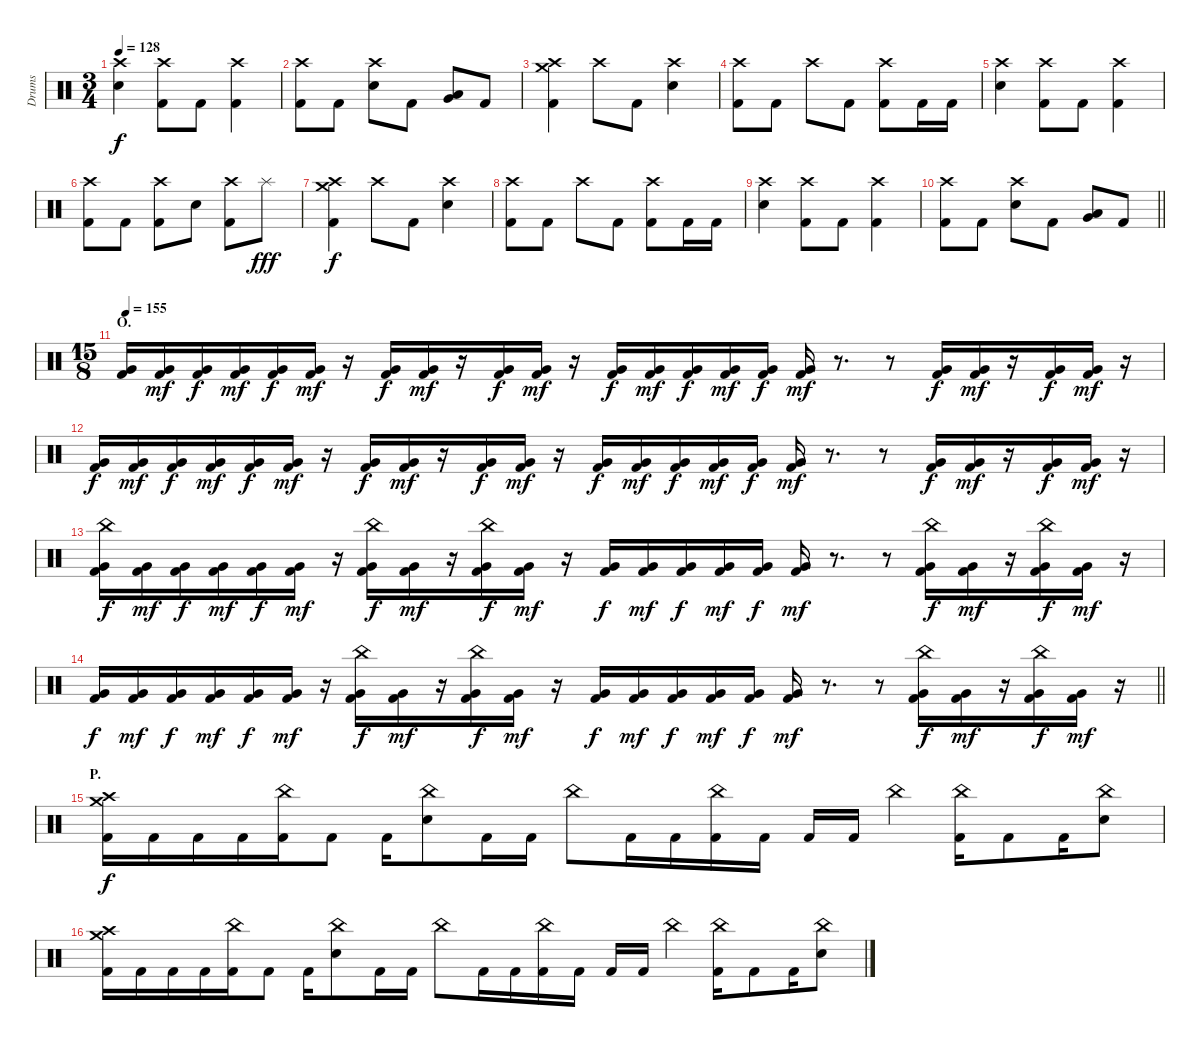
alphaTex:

\track ("Drums" "Drums") {instrument percussion}
\staff {score}
\articulation defaults
\ts (3 4)
\tempo 128
\clef neutral
\ks c
("Crash high (hit)" "Electric Snare (hit)").4{dy f} ("Crash high (hit)" "Kick (hit) 2").8 "Kick (hit) 2".8 ("Crash high (hit)" "Kick (hit) 2").4 |
("Crash high (hit)" "Kick (hit) 2").8 "Kick (hit) 2".8 ("Crash high (hit)" "Electric Snare (hit)").8 "Kick (hit) 2".8 ("Low Tom (hit)" "Very Low Tom (hit)").8{bu 120} "Kick (hit) 2".8 |
("Crash medium (hit)" "Crash high (hit)" "Kick (hit) 2").4 "Crash high (hit)".8 "Kick (hit) 2".8 ("Crash high (hit)" "Electric Snare (hit)").4 |
("Crash high (hit)" "Kick (hit) 2").8 "Kick (hit) 2".8 "Crash high (hit)".8 "Kick (hit) 2".8 ("Crash high (hit)" "Kick (hit) 2").8 "Kick (hit) 2".16 "Kick (hit) 2".16 |
("Crash high (hit)" "Electric Snare (hit)").4 ("Crash high (hit)" "Kick (hit) 2").8 "Kick (hit) 2".8 ("Crash high (hit)" "Kick (hit) 2").4 |
("Crash high (hit)" "Kick (hit) 2").8 "Kick (hit) 2".8 ("Crash high (hit)" "Kick (hit) 2").8 "Electric Snare (hit)".8 ("Crash high (hit)" "Kick (hit) 2").8 "Splash (hit)".8{dy fff} |
("Crash medium (hit)" "Crash high (hit)" "Kick (hit) 2").4{dy f} "Crash high (hit)".8 "Kick (hit) 2".8 ("Crash high (hit)" "Electric Snare (hit)").4 |
("Crash high (hit)" "Kick (hit) 2").8 "Kick (hit) 2".8 "Crash high (hit)".8 "Kick (hit) 2".8 ("Crash high (hit)" "Kick (hit) 2").8 "Kick (hit) 2".16 "Kick (hit) 2".16 |
("Crash high (hit)" "Electric Snare (hit)").4 ("Crash high (hit)" "Kick (hit) 2").8 "Kick (hit) 2".8 ("Crash high (hit)" "Kick (hit) 2").4 |
\barLineRight lightlight
("Crash high (hit)" "Kick (hit) 2").8 "Kick (hit) 2".8 ("Crash high (hit)" "Electric Snare (hit)").8 "Kick (hit) 2".8 ("Low Tom (hit)" "Very Low Tom (hit)").8{bu 120} "Kick (hit) 2".8 |
\ts (15 8)
\section ("" "O.")
\tempo 155
("Very Low Tom (hit)" "Kick (hit) 2").16 ("Very Low Tom (hit)" "Kick (hit) 2").16{dy mf} ("Very Low Tom (hit)" "Kick (hit) 2").16{dy f} ("Very Low Tom (hit)" "Kick (hit) 2").16{dy mf} ("Very Low Tom (hit)" "Kick (hit) 2").16{dy f} ("Very Low Tom (hit)" "Kick (hit) 2").16{dy mf} r.16 ("Very Low Tom (hit)" "Kick (hit) 2").16{dy f} ("Very Low Tom (hit)" "Kick (hit) 2").16{dy mf} r.16 ("Very Low Tom (hit)" "Kick (hit) 2").16{dy f} ("Very Low Tom (hit)" "Kick (hit) 2").16{dy mf} r.16 ("Very Low Tom (hit)" "Kick (hit) 2").16{dy f} ("Very Low Tom (hit)" "Kick (hit) 2").16{dy mf} ("Very Low Tom (hit)" "Kick (hit) 2").16{dy f} ("Very Low Tom (hit)" "Kick (hit) 2").16{dy mf} ("Very Low Tom (hit)" "Kick (hit) 2").16{dy f} ("Very Low Tom (hit)" "Kick (hit) 2").16{dy mf} r.8{d} r.8 ("Very Low Tom (hit)" "Kick (hit) 2").16{dy f} ("Very Low Tom (hit)" "Kick (hit) 2").16{dy mf} r.16 ("Very Low Tom (hit)" "Kick (hit) 2").16{dy f} ("Very Low Tom (hit)" "Kick (hit) 2").16{dy mf} r.16 |
("Very Low Tom (hit)" "Kick (hit) 2").16{dy f} ("Very Low Tom (hit)" "Kick (hit) 2").16{dy mf} ("Very Low Tom (hit)" "Kick (hit) 2").16{dy f} ("Very Low Tom (hit)" "Kick (hit) 2").16{dy mf} ("Very Low Tom (hit)" "Kick (hit) 2").16{dy f} ("Very Low Tom (hit)" "Kick (hit) 2").16{dy mf} r.16 ("Very Low Tom (hit)" "Kick (hit) 2").16{dy f} ("Very Low Tom (hit)" "Kick (hit) 2").16{dy mf} r.16 ("Very Low Tom (hit)" "Kick (hit) 2").16{dy f} ("Very Low Tom (hit)" "Kick (hit) 2").16{dy mf} r.16 ("Very Low Tom (hit)" "Kick (hit) 2").16{dy f} ("Very Low Tom (hit)" "Kick (hit) 2").16{dy mf} ("Very Low Tom (hit)" "Kick (hit) 2").16{dy f} ("Very Low Tom (hit)" "Kick (hit) 2").16{dy mf} ("Very Low Tom (hit)" "Kick (hit) 2").16{dy f} ("Very Low Tom (hit)" "Kick (hit) 2").16{dy mf} r.8{d} r.8 ("Very Low Tom (hit)" "Kick (hit) 2").16{dy f} ("Very Low Tom (hit)" "Kick (hit) 2").16{dy mf} r.16 ("Very Low Tom (hit)" "Kick (hit) 2").16{dy f} ("Very Low Tom (hit)" "Kick (hit) 2").16{dy mf} r.16 |
("China (hit)" "Very Low Tom (hit)" "Kick (hit) 2").16{dy f} ("Very Low Tom (hit)" "Kick (hit) 2").16{dy mf} ("Very Low Tom (hit)" "Kick (hit) 2").16{dy f} ("Very Low Tom (hit)" "Kick (hit) 2").16{dy mf} ("Very Low Tom (hit)" "Kick (hit) 2").16{dy f} ("Very Low Tom (hit)" "Kick (hit) 2").16{dy mf} r.16 ("China (hit)" "Very Low Tom (hit)" "Kick (hit) 2").16{dy f} ("Very Low Tom (hit)" "Kick (hit) 2").16{dy mf} r.16 ("China (hit)" "Very Low Tom (hit)" "Kick (hit) 2").16{dy f} ("Very Low Tom (hit)" "Kick (hit) 2").16{dy mf} r.16 ("Very Low Tom (hit)" "Kick (hit) 2").16{dy f} ("Very Low Tom (hit)" "Kick (hit) 2").16{dy mf} ("Very Low Tom (hit)" "Kick (hit) 2").16{dy f} ("Very Low Tom (hit)" "Kick (hit) 2").16{dy mf} ("Very Low Tom (hit)" "Kick (hit) 2").16{dy f} ("Very Low Tom (hit)" "Kick (hit) 2").16{dy mf} r.8{d} r.8 ("China (hit)" "Very Low Tom (hit)" "Kick (hit) 2").16{dy f} ("Very Low Tom (hit)" "Kick (hit) 2").16{dy mf} r.16 ("China (hit)" "Very Low Tom (hit)" "Kick (hit) 2").16{dy f} ("Very Low Tom (hit)" "Kick (hit) 2").16{dy mf} r.16 |
\barLineRight lightlight
("Very Low Tom (hit)" "Kick (hit) 2").16{dy f} ("Very Low Tom (hit)" "Kick (hit) 2").16{dy mf} ("Very Low Tom (hit)" "Kick (hit) 2").16{dy f} ("Very Low Tom (hit)" "Kick (hit) 2").16{dy mf} ("Very Low Tom (hit)" "Kick (hit) 2").16{dy f} ("Very Low Tom (hit)" "Kick (hit) 2").16{dy mf} r.16 ("China (hit)" "Very Low Tom (hit)" "Kick (hit) 2").16{dy f} ("Very Low Tom (hit)" "Kick (hit) 2").16{dy mf} r.16 ("China (hit)" "Very Low Tom (hit)" "Kick (hit) 2").16{dy f} ("Very Low Tom (hit)" "Kick (hit) 2").16{dy mf} r.16 ("Very Low Tom (hit)" "Kick (hit) 2").16{dy f} ("Very Low Tom (hit)" "Kick (hit) 2").16{dy mf} ("Very Low Tom (hit)" "Kick (hit) 2").16{dy f} ("Very Low Tom (hit)" "Kick (hit) 2").16{dy mf} ("Very Low Tom (hit)" "Kick (hit) 2").16{dy f} ("Very Low Tom (hit)" "Kick (hit) 2").16{dy mf} r.8{d} r.8 ("China (hit)" "Very Low Tom (hit)" "Kick (hit) 2").16{dy f} ("Very Low Tom (hit)" "Kick (hit) 2").16{dy mf} r.16 ("China (hit)" "Very Low Tom (hit)" "Kick (hit) 2").16{dy f} ("Very Low Tom (hit)" "Kick (hit) 2").16{dy mf} r.16 |
\section ("" "P.")
("Crash medium (hit)" "Crash high (hit)" "Kick (hit) 2").16{dy f} "Kick (hit) 2".16 "Kick (hit) 2".16 "Kick (hit) 2".16 ("China (hit)" "Kick (hit) 2").16 "Kick (hit) 2".8 "Kick (hit) 2".16 ("China (hit)" "Electric Snare (hit)").8 "Kick (hit) 2".16 "Kick (hit) 2".16 "China (hit)".8 "Kick (hit) 2".16 "Kick (hit) 2".16 ("China (hit)" "Kick (hit) 2").16 "Kick (hit) 2".16 "Kick (hit) 2".16 "Kick (hit) 2".16 "China (hit)".4 ("China (hit)" "Kick (hit) 2").16 "Kick (hit) 2".8 "Kick (hit) 2".16 ("China (hit)" "Electric Snare (hit)").8 |
("Crash medium (hit)" "Crash high (hit)" "Kick (hit) 2").16 "Kick (hit) 2".16 "Kick (hit) 2".16 "Kick (hit) 2".16 ("China (hit)" "Kick (hit) 2").16 "Kick (hit) 2".8 "Kick (hit) 2".16 ("China (hit)" "Electric Snare (hit)").8 "Kick (hit) 2".16 "Kick (hit) 2".16 "China (hit)".8 "Kick (hit) 2".16 "Kick (hit) 2".16 ("China (hit)" "Kick (hit) 2").16 "Kick (hit) 2".16 "Kick (hit) 2".16 "Kick (hit) 2".16 "China (hit)".4 ("China (hit)" "Kick (hit) 2").16 "Kick (hit) 2".8 "Kick (hit) 2".16 ("China (hit)" "Electric Snare (hit)").8
